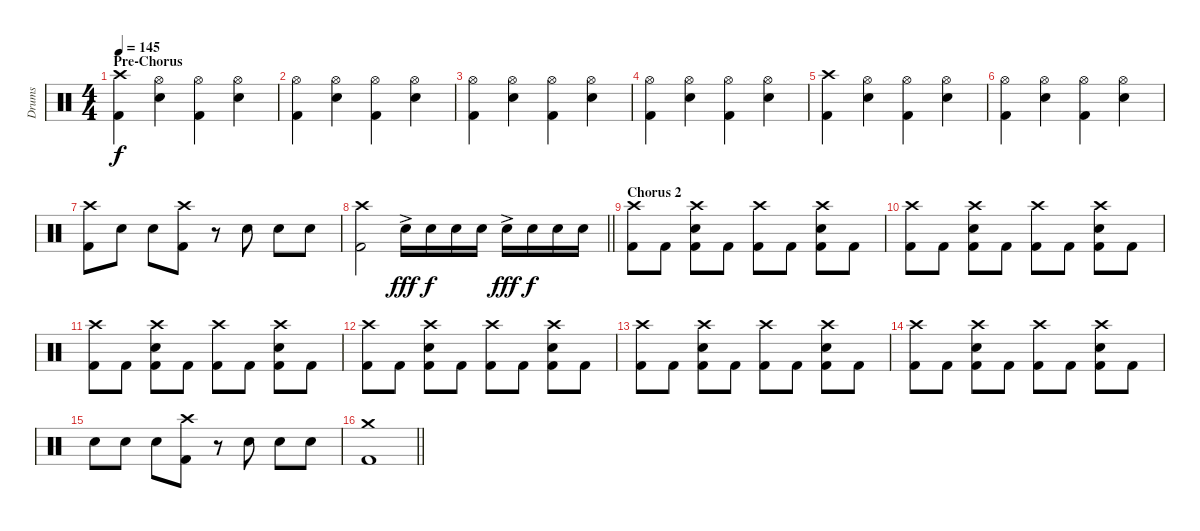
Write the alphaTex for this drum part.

\track ("Drums" "Drums") {instrument percussion}
\staff {score}
\articulation defaults
\ts (4 4)
\section ("" "Pre-Chorus")
\tempo 145
\clef neutral
\ks c
("Crash high (hit)" "Kick (hit) 2").4{dy f} ("Hi-Hat (open)" "Snare (hit) 2").4 ("Hi-Hat (open)" "Kick (hit) 2").4 ("Hi-Hat (open)" "Snare (hit) 2").4 |
("Hi-Hat (open)" "Kick (hit) 2").4 ("Hi-Hat (open)" "Snare (hit) 2").4 ("Hi-Hat (open)" "Kick (hit) 2").4 ("Hi-Hat (open)" "Snare (hit) 2").4 |
("Hi-Hat (open)" "Kick (hit) 2").4 ("Hi-Hat (open)" "Snare (hit) 2").4 ("Hi-Hat (open)" "Kick (hit) 2").4 ("Hi-Hat (open)" "Snare (hit) 2").4 |
("Hi-Hat (open)" "Kick (hit) 2").4 ("Hi-Hat (open)" "Snare (hit) 2").4 ("Hi-Hat (open)" "Kick (hit) 2").4 ("Hi-Hat (open)" "Snare (hit) 2").4 |
("Crash high (hit)" "Kick (hit) 2").4 ("Hi-Hat (open)" "Snare (hit) 2").4 ("Hi-Hat (open)" "Kick (hit) 2").4 ("Hi-Hat (open)" "Snare (hit) 2").4 |
("Hi-Hat (open)" "Kick (hit) 2").4 ("Hi-Hat (open)" "Snare (hit) 2").4 ("Hi-Hat (open)" "Kick (hit) 2").4 ("Hi-Hat (open)" "Snare (hit) 2").4 |
("Crash high (hit)" "Kick (hit) 2").8 "Snare (hit) 2".8 "Snare (hit) 2".8 ("Crash high (hit)" "Kick (hit) 2").8 r.8 "Snare (hit) 2".8 "Snare (hit) 2".8 "Snare (hit) 2".8 |
\barLineRight lightlight
("Crash high (hit)" "Kick (hit) 2").2 "Snare (hit) 2"{ac}.16{dy fff} "Snare (hit) 2".16{dy f} "Snare (hit) 2".16 "Snare (hit) 2".16 "Snare (hit) 2"{ac}.16{dy fff} "Snare (hit) 2".16{dy f} "Snare (hit) 2".16 "Snare (hit) 2".16 |
\section ("" "Chorus 2")
("Crash high (hit)" "Kick (hit) 2").8 "Kick (hit) 2".8 ("Crash high (hit)" "Snare (hit) 2" "Kick (hit) 2").8 "Kick (hit) 2".8 ("Crash high (hit)" "Kick (hit) 2").8 "Kick (hit) 2".8 ("Crash high (hit)" "Snare (hit) 2" "Kick (hit) 2").8 "Kick (hit) 2".8 |
("Crash high (hit)" "Kick (hit) 2").8 "Kick (hit) 2".8 ("Crash high (hit)" "Snare (hit) 2" "Kick (hit) 2").8 "Kick (hit) 2".8 ("Crash high (hit)" "Kick (hit) 2").8 "Kick (hit) 2".8 ("Crash high (hit)" "Snare (hit) 2" "Kick (hit) 2").8 "Kick (hit) 2".8 |
("Crash high (hit)" "Kick (hit) 2").8 "Kick (hit) 2".8 ("Crash high (hit)" "Snare (hit) 2" "Kick (hit) 2").8 "Kick (hit) 2".8 ("Crash high (hit)" "Kick (hit) 2").8 "Kick (hit) 2".8 ("Crash high (hit)" "Snare (hit) 2" "Kick (hit) 2").8 "Kick (hit) 2".8 |
("Crash high (hit)" "Kick (hit) 2").8 "Kick (hit) 2".8 ("Crash high (hit)" "Snare (hit) 2" "Kick (hit) 2").8 "Kick (hit) 2".8 ("Crash high (hit)" "Kick (hit) 2").8 "Kick (hit) 2".8 ("Crash high (hit)" "Snare (hit) 2" "Kick (hit) 2").8 "Kick (hit) 2".8 |
("Crash high (hit)" "Kick (hit) 2").8 "Kick (hit) 2".8 ("Crash high (hit)" "Snare (hit) 2" "Kick (hit) 2").8 "Kick (hit) 2".8 ("Crash high (hit)" "Kick (hit) 2").8 "Kick (hit) 2".8 ("Crash high (hit)" "Snare (hit) 2" "Kick (hit) 2").8 "Kick (hit) 2".8 |
("Crash high (hit)" "Kick (hit) 2").8 "Kick (hit) 2".8 ("Crash high (hit)" "Snare (hit) 2" "Kick (hit) 2").8 "Kick (hit) 2".8 ("Crash high (hit)" "Kick (hit) 2").8 "Kick (hit) 2".8 ("Crash high (hit)" "Snare (hit) 2" "Kick (hit) 2").8 "Kick (hit) 2".8 |
"Snare (hit) 2".8 "Snare (hit) 2".8 "Snare (hit) 2".8 ("Crash high (hit)" "Kick (hit) 2").8 r.8 "Snare (hit) 2".8 "Snare (hit) 2".8 "Snare (hit) 2".8 |
\barLineRight lightlight
("Crash medium (hit)" "Kick (hit) 2").1
